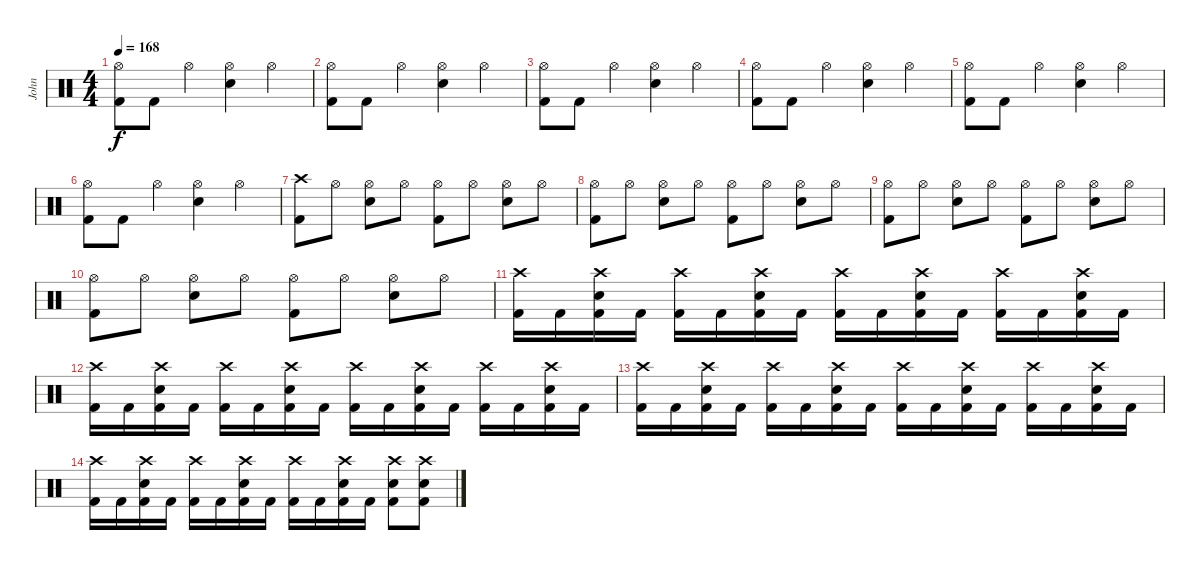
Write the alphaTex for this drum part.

\track ("John" "John") {instrument percussion}
\staff {score}
\articulation defaults
\ts (4 4)
\tempo 168
\clef neutral
\ks c
("Hi-Hat (open)" "Kick (hit) 2").8{dy f} "Kick (hit) 2".8 "Hi-Hat (open)".4 ("Hi-Hat (open)" "Electric Snare (hit)").4 "Hi-Hat (open)".4 |
("Hi-Hat (open)" "Kick (hit) 2").8 "Kick (hit) 2".8 "Hi-Hat (open)".4 ("Hi-Hat (open)" "Electric Snare (hit)").4 "Hi-Hat (open)".4 |
("Hi-Hat (open)" "Kick (hit) 2").8 "Kick (hit) 2".8 "Hi-Hat (open)".4 ("Hi-Hat (open)" "Electric Snare (hit)").4 "Hi-Hat (open)".4 |
("Hi-Hat (open)" "Kick (hit) 2").8 "Kick (hit) 2".8 "Hi-Hat (open)".4 ("Hi-Hat (open)" "Electric Snare (hit)").4 "Hi-Hat (open)".4 |
("Hi-Hat (open)" "Kick (hit) 2").8 "Kick (hit) 2".8 "Hi-Hat (open)".4 ("Hi-Hat (open)" "Electric Snare (hit)").4 "Hi-Hat (open)".4 |
("Hi-Hat (open)" "Kick (hit) 2").8 "Kick (hit) 2".8 "Hi-Hat (open)".4 ("Hi-Hat (open)" "Electric Snare (hit)").4 "Hi-Hat (open)".4 |
("Crash high (hit)" "Kick (hit) 2").8 "Hi-Hat (open)".8 ("Hi-Hat (open)" "Electric Snare (hit)").8 "Hi-Hat (open)".8 ("Hi-Hat (open)" "Kick (hit) 2").8 "Hi-Hat (open)".8 ("Hi-Hat (open)" "Electric Snare (hit)").8 "Hi-Hat (open)".8 |
("Hi-Hat (open)" "Kick (hit) 2").8 "Hi-Hat (open)".8 ("Hi-Hat (open)" "Electric Snare (hit)").8 "Hi-Hat (open)".8 ("Hi-Hat (open)" "Kick (hit) 2").8 "Hi-Hat (open)".8 ("Hi-Hat (open)" "Electric Snare (hit)").8 "Hi-Hat (open)".8 |
("Hi-Hat (open)" "Kick (hit) 2").8 "Hi-Hat (open)".8 ("Hi-Hat (open)" "Electric Snare (hit)").8 "Hi-Hat (open)".8 ("Hi-Hat (open)" "Kick (hit) 2").8 "Hi-Hat (open)".8 ("Hi-Hat (open)" "Electric Snare (hit)").8 "Hi-Hat (open)".8 |
("Hi-Hat (open)" "Kick (hit) 2").8 "Hi-Hat (open)".8 ("Hi-Hat (open)" "Electric Snare (hit)").8 "Hi-Hat (open)".8 ("Hi-Hat (open)" "Kick (hit) 2").8 "Hi-Hat (open)".8 ("Hi-Hat (open)" "Electric Snare (hit)").8 "Hi-Hat (open)".8 |
("Crash high (hit)" "Kick (hit) 2").16 "Kick (hit) 2".16 ("Crash high (hit)" "Electric Snare (hit)" "Kick (hit) 2").16 "Kick (hit) 2".16 ("Crash high (hit)" "Kick (hit) 2").16 "Kick (hit) 2".16 ("Crash high (hit)" "Electric Snare (hit)" "Kick (hit) 2").16 "Kick (hit) 2".16 ("Crash high (hit)" "Kick (hit) 2").16 "Kick (hit) 2".16 ("Crash high (hit)" "Electric Snare (hit)" "Kick (hit) 2").16 "Kick (hit) 2".16 ("Crash high (hit)" "Kick (hit) 2").16 "Kick (hit) 2".16 ("Crash high (hit)" "Electric Snare (hit)" "Kick (hit) 2").16 "Kick (hit) 2".16 |
("Crash high (hit)" "Kick (hit) 2").16 "Kick (hit) 2".16 ("Crash high (hit)" "Electric Snare (hit)" "Kick (hit) 2").16 "Kick (hit) 2".16 ("Crash high (hit)" "Kick (hit) 2").16 "Kick (hit) 2".16 ("Crash high (hit)" "Electric Snare (hit)" "Kick (hit) 2").16 "Kick (hit) 2".16 ("Crash high (hit)" "Kick (hit) 2").16 "Kick (hit) 2".16 ("Crash high (hit)" "Electric Snare (hit)" "Kick (hit) 2").16 "Kick (hit) 2".16 ("Crash high (hit)" "Kick (hit) 2").16 "Kick (hit) 2".16 ("Crash high (hit)" "Electric Snare (hit)" "Kick (hit) 2").16 "Kick (hit) 2".16 |
("Crash high (hit)" "Kick (hit) 2").16 "Kick (hit) 2".16 ("Crash high (hit)" "Electric Snare (hit)" "Kick (hit) 2").16 "Kick (hit) 2".16 ("Crash high (hit)" "Kick (hit) 2").16 "Kick (hit) 2".16 ("Crash high (hit)" "Electric Snare (hit)" "Kick (hit) 2").16 "Kick (hit) 2".16 ("Crash high (hit)" "Kick (hit) 2").16 "Kick (hit) 2".16 ("Crash high (hit)" "Electric Snare (hit)" "Kick (hit) 2").16 "Kick (hit) 2".16 ("Crash high (hit)" "Kick (hit) 2").16 "Kick (hit) 2".16 ("Crash high (hit)" "Electric Snare (hit)" "Kick (hit) 2").16 "Kick (hit) 2".16 |
("Crash high (hit)" "Kick (hit) 2").16 "Kick (hit) 2".16 ("Crash high (hit)" "Electric Snare (hit)" "Kick (hit) 2").16 "Kick (hit) 2".16 ("Crash high (hit)" "Kick (hit) 2").16 "Kick (hit) 2".16 ("Crash high (hit)" "Electric Snare (hit)" "Kick (hit) 2").16 "Kick (hit) 2".16 ("Crash high (hit)" "Kick (hit) 2").16 "Kick (hit) 2".16 ("Crash high (hit)" "Electric Snare (hit)" "Kick (hit) 2").16 "Kick (hit) 2".16 ("Crash high (hit)" "Electric Snare (hit)" "Kick (hit) 2").8 ("Crash high (hit)" "Electric Snare (hit)" "Kick (hit) 2").8
